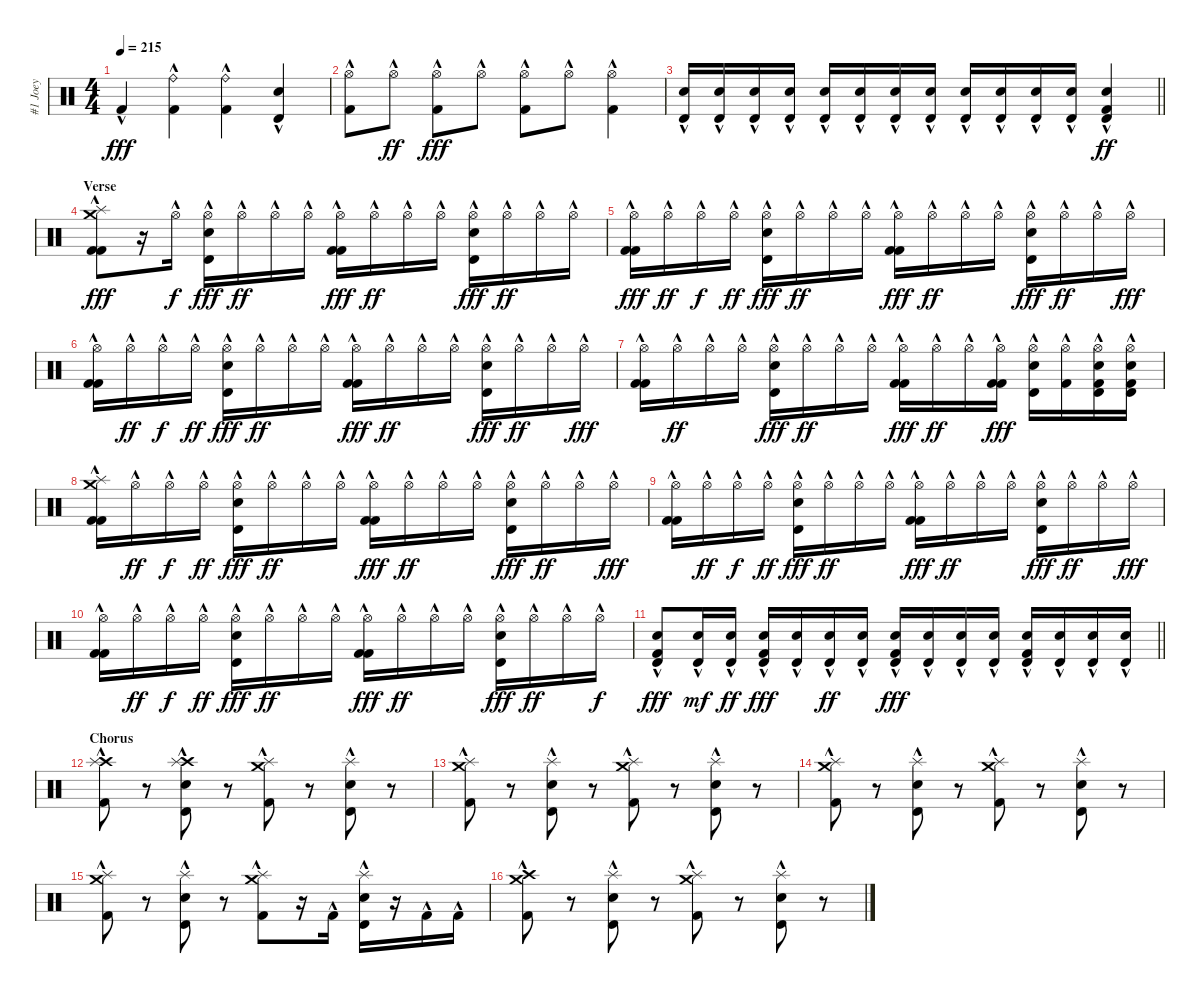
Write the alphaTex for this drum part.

\track ("#1 Joey" "#1 Joey") {instrument percussion}
\staff {score}
\articulation defaults
\ts (4 4)
\tempo 215
\clef neutral
\ks c "Kick (hit) 2"{hac}.4{dy fff}
("Ride (bell)"{hac} "Kick (hit) 2"{hac}).4 ("Ride (bell)"{hac} "Kick (hit) 2"{hac}).4 ("Timbale high (hit)"{hac} "Electric Snare (hit)"{hac}).4 |
("Hi-Hat (open)"{hac} "Kick (hit) 2"{hac}).8 "Hi-Hat (open)"{hac}.8{dy ff} ("Hi-Hat (open)"{hac} "Kick (hit) 2"{hac}).8{dy fff} "Hi-Hat (open)"{hac}.8 ("Hi-Hat (open)"{hac} "Kick (hit) 2"{hac}).8 "Hi-Hat (open)"{hac}.8 ("Hi-Hat (open)"{hac} "Kick (hit) 2"{hac}).4 |
\barLineRight lightlight
("Timbale high (hit)"{hac} "Electric Snare (hit)"{hac}).16 ("Timbale high (hit)"{hac} "Electric Snare (hit)"{hac}).16 ("Timbale high (hit)"{hac} "Electric Snare (hit)"{hac}).16 ("Timbale high (hit)"{hac} "Electric Snare (hit)"{hac}).16 ("Timbale high (hit)"{hac} "Electric Snare (hit)"{hac}).16 ("Timbale high (hit)"{hac} "Electric Snare (hit)"{hac}).16 ("Timbale high (hit)"{hac} "Electric Snare (hit)"{hac}).16 ("Timbale high (hit)"{hac} "Electric Snare (hit)"{hac}).16 ("Timbale high (hit)"{hac} "Electric Snare (hit)"{hac}).16 ("Timbale high (hit)"{hac} "Electric Snare (hit)"{hac}).16 ("Timbale high (hit)"{hac} "Electric Snare (hit)"{hac}).16 ("Timbale high (hit)"{hac} "Electric Snare (hit)"{hac}).16 ("Timbale high (hit)"{hac} "Electric Snare (hit)"{hac} "Kick (hit) 2"{hac}).4{dy ff} |
\section ("" "Verse")
("Crash medium (hit)"{hac} "Splash (hit)"{hac} "Kick (hit) 2"{hac} "Kick (hit) 2"{hac}).8{dy fff} r.16 "Hi-Hat (open)"{hac}.16{dy f} ("Hi-Hat (open)"{hac} "Timbale high (hit)"{hac} "Electric Snare (hit)"{hac}).16{dy fff} "Hi-Hat (open)"{hac}.16{dy ff} "Hi-Hat (open)"{hac}.16 "Hi-Hat (open)"{hac}.16 ("Hi-Hat (open)"{hac} "Kick (hit) 2"{hac} "Kick (hit) 2"{hac}).16{dy fff} "Hi-Hat (open)"{hac}.16{dy ff} "Hi-Hat (open)"{hac}.16 "Hi-Hat (open)"{hac}.16 ("Hi-Hat (open)"{hac} "Timbale high (hit)"{hac} "Electric Snare (hit)"{hac}).16{dy fff} "Hi-Hat (open)"{hac}.16{dy ff} "Hi-Hat (open)"{hac}.16 "Hi-Hat (open)"{hac}.16 |
("Hi-Hat (open)"{hac} "Kick (hit) 2"{hac} "Kick (hit) 2"{hac}).16{dy fff} "Hi-Hat (open)"{hac}.16{dy ff} "Hi-Hat (open)"{hac}.16{dy f} "Hi-Hat (open)"{hac}.16{dy ff} ("Hi-Hat (open)"{hac} "Timbale high (hit)"{hac} "Electric Snare (hit)"{hac}).16{dy fff} "Hi-Hat (open)"{hac}.16{dy ff} "Hi-Hat (open)"{hac}.16 "Hi-Hat (open)"{hac}.16 ("Hi-Hat (open)"{hac} "Kick (hit) 2"{hac} "Kick (hit) 2"{hac}).16{dy fff} "Hi-Hat (open)"{hac}.16{dy ff} "Hi-Hat (open)"{hac}.16 "Hi-Hat (open)"{hac}.16 ("Hi-Hat (open)"{hac} "Timbale high (hit)"{hac} "Electric Snare (hit)"{hac}).16{dy fff} "Hi-Hat (open)"{hac}.16{dy ff} "Hi-Hat (open)"{hac}.16 "Hi-Hat (open)"{hac}.16{dy fff} |
("Hi-Hat (open)"{hac} "Kick (hit) 2"{hac} "Kick (hit) 2"{hac}).16 "Hi-Hat (open)"{hac}.16{dy ff} "Hi-Hat (open)"{hac}.16{dy f} "Hi-Hat (open)"{hac}.16{dy ff} ("Hi-Hat (open)"{hac} "Timbale high (hit)"{hac} "Electric Snare (hit)"{hac}).16{dy fff} "Hi-Hat (open)"{hac}.16{dy ff} "Hi-Hat (open)"{hac}.16 "Hi-Hat (open)"{hac}.16 ("Hi-Hat (open)"{hac} "Kick (hit) 2"{hac} "Kick (hit) 2"{hac}).16{dy fff} "Hi-Hat (open)"{hac}.16{dy ff} "Hi-Hat (open)"{hac}.16 "Hi-Hat (open)"{hac}.16 ("Hi-Hat (open)"{hac} "Timbale high (hit)"{hac} "Electric Snare (hit)"{hac}).16{dy fff} "Hi-Hat (open)"{hac}.16{dy ff} "Hi-Hat (open)"{hac}.16 "Hi-Hat (open)"{hac}.16{dy fff} |
("Hi-Hat (open)"{hac} "Kick (hit) 2"{hac} "Kick (hit) 2"{hac}).16 "Hi-Hat (open)"{hac}.16{dy ff} "Hi-Hat (open)"{hac}.16 "Hi-Hat (open)"{hac}.16 ("Hi-Hat (open)"{hac} "Timbale high (hit)"{hac} "Electric Snare (hit)"{hac}).16{dy fff} "Hi-Hat (open)"{hac}.16{dy ff} "Hi-Hat (open)"{hac}.16 "Hi-Hat (open)"{hac}.16 ("Hi-Hat (open)"{hac} "Kick (hit) 2"{hac} "Kick (hit) 2"{hac}).16{dy fff} "Hi-Hat (open)"{hac}.16{dy ff} "Hi-Hat (open)"{hac}.16 ("Hi-Hat (open)"{hac} "Kick (hit) 2"{hac} "Kick (hit) 2"{hac}).16{dy fff} ("Hi-Hat (open)"{hac} "Timbale high (hit)"{hac} "Electric Snare (hit)"{hac}).16 ("Hi-Hat (open)"{hac} "Kick (hit) 2"{hac}).16 ("Hi-Hat (open)"{hac} "Timbale high (hit)"{hac} "Electric Snare (hit)"{hac} "Kick (hit) 2"{hac}).16 ("Hi-Hat (open)"{hac} "Timbale high (hit)"{hac} "Electric Snare (hit)"{hac} "Kick (hit) 2"{hac}).16 |
("Crash medium (hit)"{hac} "Splash (hit)"{hac} "Kick (hit) 2"{hac} "Kick (hit) 2"{hac}).16 "Hi-Hat (open)"{hac}.16{dy ff} "Hi-Hat (open)"{hac}.16{dy f} "Hi-Hat (open)"{hac}.16{dy ff} ("Hi-Hat (open)"{hac} "Timbale high (hit)"{hac} "Electric Snare (hit)"{hac}).16{dy fff} "Hi-Hat (open)"{hac}.16{dy ff} "Hi-Hat (open)"{hac}.16 "Hi-Hat (open)"{hac}.16 ("Hi-Hat (open)"{hac} "Kick (hit) 2"{hac} "Kick (hit) 2"{hac}).16{dy fff} "Hi-Hat (open)"{hac}.16{dy ff} "Hi-Hat (open)"{hac}.16 "Hi-Hat (open)"{hac}.16 ("Hi-Hat (open)"{hac} "Timbale high (hit)"{hac} "Electric Snare (hit)"{hac}).16{dy fff} "Hi-Hat (open)"{hac}.16{dy ff} "Hi-Hat (open)"{hac}.16 "Hi-Hat (open)"{hac}.16{dy fff} |
("Hi-Hat (open)"{hac} "Kick (hit) 2"{hac} "Kick (hit) 2"{hac}).16 "Hi-Hat (open)"{hac}.16{dy ff} "Hi-Hat (open)"{hac}.16{dy f} "Hi-Hat (open)"{hac}.16{dy ff} ("Hi-Hat (open)"{hac} "Timbale high (hit)"{hac} "Electric Snare (hit)"{hac}).16{dy fff} "Hi-Hat (open)"{hac}.16{dy ff} "Hi-Hat (open)"{hac}.16 "Hi-Hat (open)"{hac}.16 ("Hi-Hat (open)"{hac} "Kick (hit) 2"{hac} "Kick (hit) 2"{hac}).16{dy fff} "Hi-Hat (open)"{hac}.16{dy ff} "Hi-Hat (open)"{hac}.16 "Hi-Hat (open)"{hac}.16 ("Hi-Hat (open)"{hac} "Timbale high (hit)"{hac} "Electric Snare (hit)"{hac}).16{dy fff} "Hi-Hat (open)"{hac}.16{dy ff} "Hi-Hat (open)"{hac}.16 "Hi-Hat (open)"{hac}.16{dy fff} |
("Hi-Hat (open)"{hac} "Kick (hit) 2"{hac} "Kick (hit) 2"{hac}).16 "Hi-Hat (open)"{hac}.16{dy ff} "Hi-Hat (open)"{hac}.16{dy f} "Hi-Hat (open)"{hac}.16{dy ff} ("Hi-Hat (open)"{hac} "Timbale high (hit)"{hac} "Electric Snare (hit)"{hac}).16{dy fff} "Hi-Hat (open)"{hac}.16{dy ff} "Hi-Hat (open)"{hac}.16 "Hi-Hat (open)"{hac}.16 ("Hi-Hat (open)"{hac} "Kick (hit) 2"{hac} "Kick (hit) 2"{hac}).16{dy fff} "Hi-Hat (open)"{hac}.16{dy ff} "Hi-Hat (open)"{hac}.16 "Hi-Hat (open)"{hac}.16 ("Hi-Hat (open)"{hac} "Timbale high (hit)"{hac} "Electric Snare (hit)"{hac}).16{dy fff} "Hi-Hat (open)"{hac}.16{dy ff} "Hi-Hat (open)"{hac}.16 "Hi-Hat (open)"{hac}.16{dy f} |
\barLineRight lightlight
("Timbale high (hit)"{hac} "Electric Snare (hit)"{hac} "Kick (hit) 2"{hac}).8{dy fff} ("Timbale high (hit)"{hac} "Electric Snare (hit)"{hac}).16{dy mf} ("Timbale high (hit)"{hac} "Electric Snare (hit)"{hac}).16{dy ff} ("Timbale high (hit)"{hac} "Electric Snare (hit)"{hac} "Kick (hit) 2"{hac}).16{dy fff} ("Timbale high (hit)"{hac} "Electric Snare (hit)"{hac}).16 ("Timbale high (hit)"{hac} "Electric Snare (hit)"{hac}).16{dy ff} ("Timbale high (hit)"{hac} "Electric Snare (hit)"{hac}).16 ("Timbale high (hit)"{hac} "Electric Snare (hit)"{hac} "Kick (hit) 2"{hac}).16{dy fff} ("Timbale high (hit)"{hac} "Electric Snare (hit)"{hac}).16 ("Timbale high (hit)"{hac} "Electric Snare (hit)"{hac}).16 ("Timbale high (hit)"{hac} "Electric Snare (hit)"{hac}).16 ("Timbale high (hit)"{hac} "Electric Snare (hit)"{hac} "Kick (hit) 2"{hac}).16 ("Timbale high (hit)"{hac} "Electric Snare (hit)"{hac}).16 ("Timbale high (hit)"{hac} "Electric Snare (hit)"{hac}).16 ("Timbale high (hit)"{hac} "Electric Snare (hit)"{hac}).16 |
\section ("" "Chorus")
("Crash high (hit)"{hac} "Splash (hit)"{hac} "Kick (hit) 2"{hac}).8 r.8 ("Crash high (hit)"{hac} "Splash (hit)"{hac} "Timbale high (hit)"{hac} "Electric Snare (hit)"{hac}).8 r.8 ("Crash medium (hit)"{hac} "Splash (hit)"{hac} "Kick (hit) 2"{hac}).8 r.8 ("Splash (hit)"{hac} "Timbale high (hit)"{hac} "Electric Snare (hit)"{hac}).8 r.8 |
("Crash medium (hit)"{hac} "Splash (hit)"{hac} "Kick (hit) 2"{hac}).8 r.8 ("Splash (hit)"{hac} "Timbale high (hit)"{hac} "Electric Snare (hit)"{hac}).8 r.8 ("Crash medium (hit)"{hac} "Splash (hit)"{hac} "Kick (hit) 2"{hac}).8 r.8 ("Splash (hit)"{hac} "Timbale high (hit)"{hac} "Electric Snare (hit)"{hac}).8 r.8 |
("Crash medium (hit)"{hac} "Splash (hit)"{hac} "Kick (hit) 2"{hac}).8 r.8 ("Splash (hit)"{hac} "Timbale high (hit)"{hac} "Electric Snare (hit)"{hac}).8 r.8 ("Crash medium (hit)"{hac} "Splash (hit)"{hac} "Kick (hit) 2"{hac}).8 r.8 ("Splash (hit)"{hac} "Timbale high (hit)"{hac} "Electric Snare (hit)"{hac}).8 r.8 |
("Crash medium (hit)"{hac} "Splash (hit)"{hac} "Kick (hit) 2"{hac}).8 r.8 ("Splash (hit)"{hac} "Timbale high (hit)"{hac} "Electric Snare (hit)"{hac}).8 r.8 ("Crash medium (hit)"{hac} "Splash (hit)"{hac} "Kick (hit) 2"{hac}).8 r.16 "Kick (hit) 2"{hac}.16 ("Splash (hit)"{hac} "Timbale high (hit)"{hac} "Electric Snare (hit)"{hac}).16 r.16 "Kick (hit) 2"{hac}.16 "Kick (hit) 2"{hac}.16 |
("Crash high (hit)"{hac} "Crash medium (hit)"{hac} "Kick (hit) 2"{hac}).8 r.8 ("Splash (hit)"{hac} "Timbale high (hit)"{hac} "Electric Snare (hit)"{hac}).8 r.8 ("Crash medium (hit)"{hac} "Splash (hit)"{hac} "Kick (hit) 2"{hac}).8 r.8 ("Splash (hit)"{hac} "Timbale high (hit)"{hac} "Electric Snare (hit)"{hac}).8 r.8
